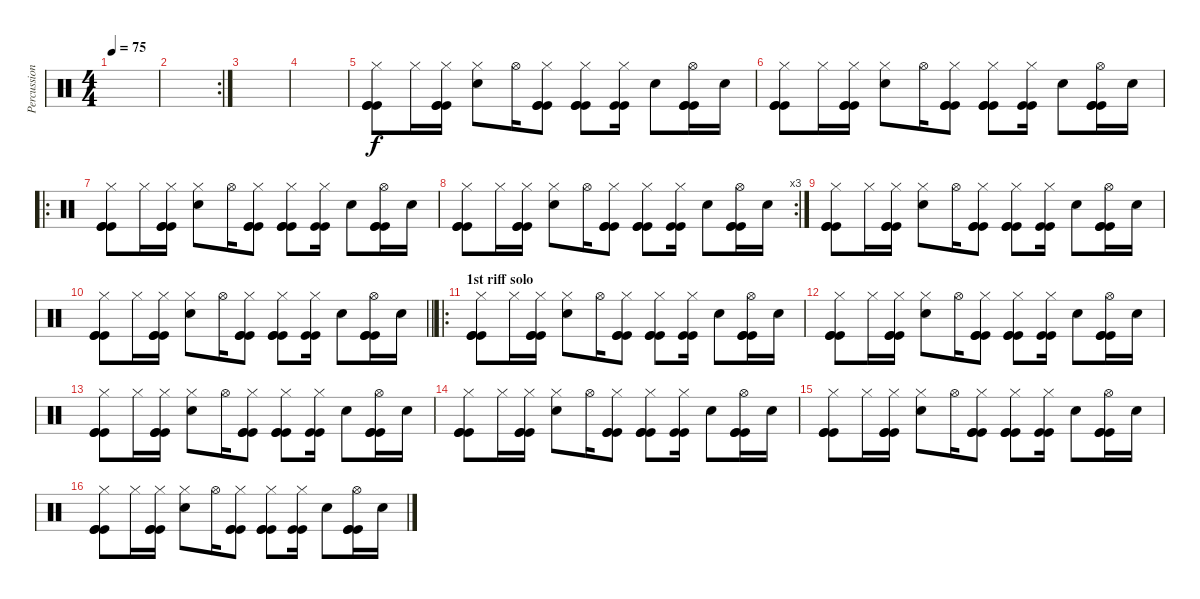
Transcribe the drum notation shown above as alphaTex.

\track ("Percussion" "Percussion") {instrument percussion}
\staff {score}
\articulation defaults
\ts (4 4)
\tempo 75
\clef neutral
\ks c
|
\rc 2
|
|
|
("Kick (hit)" "Kick (hit)" "Kick (hit)" "Hi-Hat (closed)").8 "Hi-Hat (closed)".16 ("Kick (hit)" "Kick (hit)" "Kick (hit)" "Hi-Hat (closed)").16 ("Electric Snare (hit)" "Hi-Hat (closed)").8 "Hi-Hat (open)".16 ("Kick (hit)" "Kick (hit)" "Kick (hit)" "Hi-Hat (closed)").8 ("Kick (hit)" "Kick (hit)" "Kick (hit)" "Hi-Hat (closed)").8 ("Kick (hit)" "Kick (hit)" "Hi-Hat (closed)").16 "Electric Snare (hit)".8 ("Kick (hit)" "Kick (hit)" "Kick (hit)" "Hi-Hat (open)").16 "Electric Snare (hit)".16 |
("Kick (hit)" "Kick (hit)" "Kick (hit)" "Hi-Hat (closed)").8 "Hi-Hat (closed)".16 ("Kick (hit)" "Kick (hit)" "Kick (hit)" "Hi-Hat (closed)").16 ("Electric Snare (hit)" "Hi-Hat (closed)").8 "Hi-Hat (open)".16 ("Kick (hit)" "Kick (hit)" "Kick (hit)" "Hi-Hat (closed)").8 ("Kick (hit)" "Kick (hit)" "Kick (hit)" "Hi-Hat (closed)").8 ("Kick (hit)" "Kick (hit)" "Hi-Hat (closed)").16 "Electric Snare (hit)".8 ("Kick (hit)" "Kick (hit)" "Kick (hit)" "Hi-Hat (open)").16 "Electric Snare (hit)".16 |
\ro
("Kick (hit)" "Kick (hit)" "Kick (hit)" "Hi-Hat (closed)").8 "Hi-Hat (closed)".16 ("Kick (hit)" "Kick (hit)" "Kick (hit)" "Hi-Hat (closed)").16 ("Electric Snare (hit)" "Hi-Hat (closed)").8 "Hi-Hat (open)".16 ("Kick (hit)" "Kick (hit)" "Kick (hit)" "Hi-Hat (closed)").8 ("Kick (hit)" "Kick (hit)" "Kick (hit)" "Hi-Hat (closed)").8 ("Kick (hit)" "Kick (hit)" "Hi-Hat (closed)").16 "Electric Snare (hit)".8 ("Kick (hit)" "Kick (hit)" "Kick (hit)" "Hi-Hat (open)").16 "Electric Snare (hit)".16 |
\rc 3
("Kick (hit)" "Kick (hit)" "Kick (hit)" "Hi-Hat (closed)").8 "Hi-Hat (closed)".16 ("Kick (hit)" "Kick (hit)" "Kick (hit)" "Hi-Hat (closed)").16 ("Electric Snare (hit)" "Hi-Hat (closed)").8 "Hi-Hat (open)".16 ("Kick (hit)" "Kick (hit)" "Kick (hit)" "Hi-Hat (closed)").8 ("Kick (hit)" "Kick (hit)" "Kick (hit)" "Hi-Hat (closed)").8 ("Kick (hit)" "Kick (hit)" "Hi-Hat (closed)").16 "Electric Snare (hit)".8 ("Kick (hit)" "Kick (hit)" "Kick (hit)" "Hi-Hat (open)").16 "Electric Snare (hit)".16 |
("Kick (hit)" "Kick (hit)" "Kick (hit)" "Hi-Hat (closed)").8 "Hi-Hat (closed)".16 ("Kick (hit)" "Kick (hit)" "Kick (hit)" "Hi-Hat (closed)").16 ("Electric Snare (hit)" "Hi-Hat (closed)").8 "Hi-Hat (open)".16 ("Kick (hit)" "Kick (hit)" "Kick (hit)" "Hi-Hat (closed)").8 ("Kick (hit)" "Kick (hit)" "Kick (hit)" "Hi-Hat (closed)").8 ("Kick (hit)" "Kick (hit)" "Hi-Hat (closed)").16 "Electric Snare (hit)".8 ("Kick (hit)" "Kick (hit)" "Kick (hit)" "Hi-Hat (open)").16 "Electric Snare (hit)".16 |
\barLineRight lightlight
("Kick (hit)" "Kick (hit)" "Kick (hit)" "Hi-Hat (closed)").8 "Hi-Hat (closed)".16 ("Kick (hit)" "Kick (hit)" "Kick (hit)" "Hi-Hat (closed)").16 ("Electric Snare (hit)" "Hi-Hat (closed)").8 "Hi-Hat (open)".16 ("Kick (hit)" "Kick (hit)" "Kick (hit)" "Hi-Hat (closed)").8 ("Kick (hit)" "Kick (hit)" "Kick (hit)" "Hi-Hat (closed)").8 ("Kick (hit)" "Kick (hit)" "Hi-Hat (closed)").16 "Electric Snare (hit)".8 ("Kick (hit)" "Kick (hit)" "Kick (hit)" "Hi-Hat (open)").16 "Electric Snare (hit)".16 |
\ro
\section ("" "1st riff solo")
("Kick (hit)" "Kick (hit)" "Kick (hit)" "Hi-Hat (closed)").8 "Hi-Hat (closed)".16 ("Kick (hit)" "Kick (hit)" "Kick (hit)" "Hi-Hat (closed)").16 ("Electric Snare (hit)" "Hi-Hat (closed)").8 "Hi-Hat (open)".16 ("Kick (hit)" "Kick (hit)" "Kick (hit)" "Hi-Hat (closed)").8 ("Kick (hit)" "Kick (hit)" "Kick (hit)" "Hi-Hat (closed)").8 ("Kick (hit)" "Kick (hit)" "Hi-Hat (closed)").16 "Electric Snare (hit)".8 ("Kick (hit)" "Kick (hit)" "Kick (hit)" "Hi-Hat (open)").16 "Electric Snare (hit)".16 |
("Kick (hit)" "Kick (hit)" "Kick (hit)" "Hi-Hat (closed)").8 "Hi-Hat (closed)".16 ("Kick (hit)" "Kick (hit)" "Kick (hit)" "Hi-Hat (closed)").16 ("Electric Snare (hit)" "Hi-Hat (closed)").8 "Hi-Hat (open)".16 ("Kick (hit)" "Kick (hit)" "Kick (hit)" "Hi-Hat (closed)").8 ("Kick (hit)" "Kick (hit)" "Kick (hit)" "Hi-Hat (closed)").8 ("Kick (hit)" "Kick (hit)" "Hi-Hat (closed)").16 "Electric Snare (hit)".8 ("Kick (hit)" "Kick (hit)" "Kick (hit)" "Hi-Hat (open)").16 "Electric Snare (hit)".16 |
("Kick (hit)" "Kick (hit)" "Kick (hit)" "Hi-Hat (closed)").8 "Hi-Hat (closed)".16 ("Kick (hit)" "Kick (hit)" "Kick (hit)" "Hi-Hat (closed)").16 ("Electric Snare (hit)" "Hi-Hat (closed)").8 "Hi-Hat (open)".16 ("Kick (hit)" "Kick (hit)" "Kick (hit)" "Hi-Hat (closed)").8 ("Kick (hit)" "Kick (hit)" "Kick (hit)" "Hi-Hat (closed)").8 ("Kick (hit)" "Kick (hit)" "Hi-Hat (closed)").16 "Electric Snare (hit)".8 ("Kick (hit)" "Kick (hit)" "Kick (hit)" "Hi-Hat (open)").16 "Electric Snare (hit)".16 |
("Kick (hit)" "Kick (hit)" "Kick (hit)" "Hi-Hat (closed)").8 "Hi-Hat (closed)".16 ("Kick (hit)" "Kick (hit)" "Kick (hit)" "Hi-Hat (closed)").16 ("Electric Snare (hit)" "Hi-Hat (closed)").8 "Hi-Hat (open)".16 ("Kick (hit)" "Kick (hit)" "Kick (hit)" "Hi-Hat (closed)").8 ("Kick (hit)" "Kick (hit)" "Kick (hit)" "Hi-Hat (closed)").8 ("Kick (hit)" "Kick (hit)" "Hi-Hat (closed)").16 "Electric Snare (hit)".8 ("Kick (hit)" "Kick (hit)" "Kick (hit)" "Hi-Hat (open)").16 "Electric Snare (hit)".16 |
("Kick (hit)" "Kick (hit)" "Kick (hit)" "Hi-Hat (closed)").8 "Hi-Hat (closed)".16 ("Kick (hit)" "Kick (hit)" "Kick (hit)" "Hi-Hat (closed)").16 ("Electric Snare (hit)" "Hi-Hat (closed)").8 "Hi-Hat (open)".16 ("Kick (hit)" "Kick (hit)" "Kick (hit)" "Hi-Hat (closed)").8 ("Kick (hit)" "Kick (hit)" "Kick (hit)" "Hi-Hat (closed)").8 ("Kick (hit)" "Kick (hit)" "Hi-Hat (closed)").16 "Electric Snare (hit)".8 ("Kick (hit)" "Kick (hit)" "Kick (hit)" "Hi-Hat (open)").16 "Electric Snare (hit)".16 |
("Kick (hit)" "Kick (hit)" "Kick (hit)" "Hi-Hat (closed)").8 "Hi-Hat (closed)".16 ("Kick (hit)" "Kick (hit)" "Kick (hit)" "Hi-Hat (closed)").16 ("Electric Snare (hit)" "Hi-Hat (closed)").8 "Hi-Hat (open)".16 ("Kick (hit)" "Kick (hit)" "Kick (hit)" "Hi-Hat (closed)").8 ("Kick (hit)" "Kick (hit)" "Kick (hit)" "Hi-Hat (closed)").8 ("Kick (hit)" "Kick (hit)" "Hi-Hat (closed)").16 "Electric Snare (hit)".8 ("Kick (hit)" "Kick (hit)" "Kick (hit)" "Hi-Hat (open)").16 "Electric Snare (hit)".16
